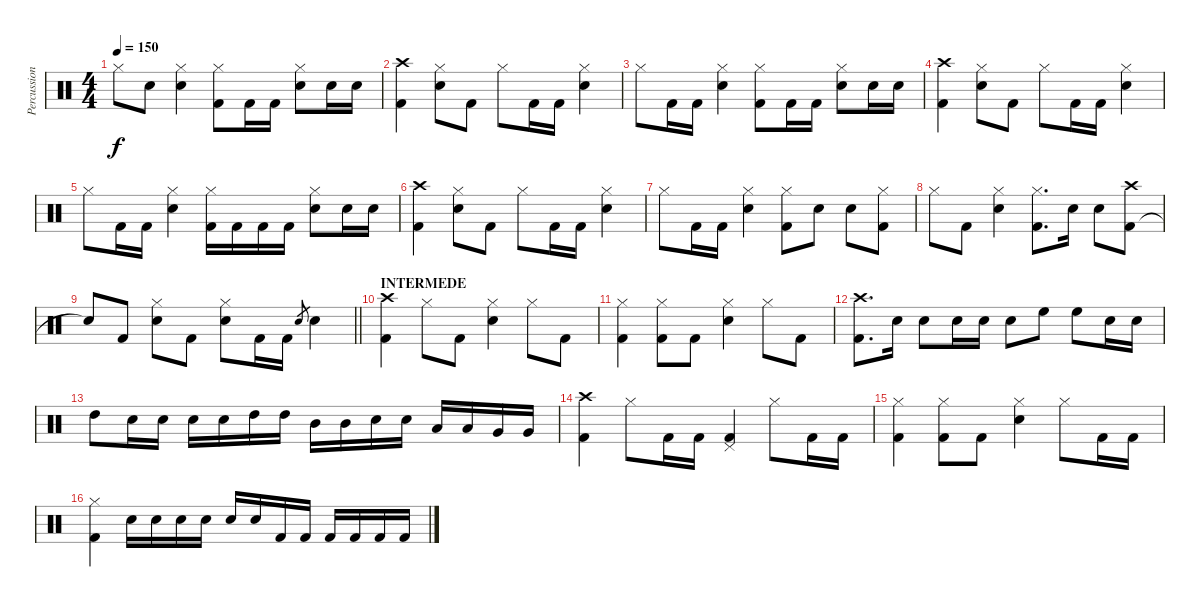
\track ("Percussion" "Percussion") {instrument percussion}
\staff {score}
\articulation defaults
\ts (4 4)
\tempo 150
\clef neutral
\ks c "Hi-Hat (closed)".8{dy f} "Electric Snare (hit)".8
("Electric Snare (hit)" "Hi-Hat (closed)").4 ("Kick (hit) 2" "Hi-Hat (closed)").8 "Kick (hit) 2".16 "Kick (hit) 2".16 ("Electric Snare (hit)" "Hi-Hat (closed)").8 "Electric Snare (hit)".16 "Electric Snare (hit)".16 |
("Kick (hit) 2" "Crash high (hit)").4 ("Electric Snare (hit)" "Hi-Hat (closed)").8 "Kick (hit) 2".8 "Hi-Hat (closed)".8 "Kick (hit) 2".16 "Kick (hit) 2".16 ("Electric Snare (hit)" "Hi-Hat (closed)").4 |
"Hi-Hat (closed)".8 "Kick (hit) 2".16 "Kick (hit) 2".16 ("Electric Snare (hit)" "Hi-Hat (closed)").4 ("Kick (hit) 2" "Hi-Hat (closed)").8 "Kick (hit) 2".16 "Kick (hit) 2".16 ("Electric Snare (hit)" "Hi-Hat (closed)").8 "Electric Snare (hit)".16 "Electric Snare (hit)".16 |
("Kick (hit) 2" "Crash high (hit)").4 ("Electric Snare (hit)" "Hi-Hat (closed)").8 "Kick (hit) 2".8 "Hi-Hat (closed)".8 "Kick (hit) 2".16 "Kick (hit) 2".16 ("Electric Snare (hit)" "Hi-Hat (closed)").4 |
"Hi-Hat (closed)".8 "Kick (hit) 2".16 "Kick (hit) 2".16 ("Electric Snare (hit)" "Hi-Hat (closed)").4 ("Kick (hit) 2" "Hi-Hat (closed)").16 "Kick (hit) 2".16 "Kick (hit) 2".16 "Kick (hit) 2".16 ("Electric Snare (hit)" "Hi-Hat (closed)").8 "Electric Snare (hit)".16 "Electric Snare (hit)".16 |
("Kick (hit) 2" "Crash high (hit)").4 ("Electric Snare (hit)" "Hi-Hat (closed)").8 "Kick (hit) 2".8 "Hi-Hat (closed)".8 "Kick (hit) 2".16 "Kick (hit) 2".16 ("Electric Snare (hit)" "Hi-Hat (closed)").4 |
"Hi-Hat (closed)".8 "Kick (hit) 2".16 "Kick (hit) 2".16 ("Electric Snare (hit)" "Hi-Hat (closed)").4 ("Kick (hit) 2" "Hi-Hat (closed)").8 "Electric Snare (hit)".8 "Electric Snare (hit)".8 ("Kick (hit) 2" "Hi-Hat (closed)").8 |
"Hi-Hat (closed)".8 "Kick (hit) 2".8 ("Electric Snare (hit)" "Hi-Hat (closed)").4 ("Kick (hit) 2" "Hi-Hat (closed)").8{d} "Electric Snare (hit)".16 "Electric Snare (hit)".8 ("Kick (hit) 2" "Crash high (hit)").8 |
\barLineRight lightlight "Snare (hit)"{t}.8 "Kick (hit) 2".8
("Electric Snare (hit)" "Hi-Hat (closed)").8 "Kick (hit) 2".8 ("Electric Snare (hit)" "Hi-Hat (closed)").8 "Kick (hit) 2".16 "Kick (hit) 2".16 "Electric Snare (hit)".8{gr} "Electric Snare (hit)".4 |
\section ("" "INTERMEDE")
("Kick (hit) 2" "Crash high (hit)").4 "Hi-Hat (closed)".8 "Kick (hit) 2".8 ("Electric Snare (hit)" "Hi-Hat (closed)").4 "Hi-Hat (closed)".8 "Kick (hit) 2".8 |
("Kick (hit) 2" "Hi-Hat (closed)").4 ("Kick (hit) 2" "Hi-Hat (closed)").8 "Kick (hit) 2".8 ("Electric Snare (hit)" "Hi-Hat (closed)").4 "Hi-Hat (closed)".8 "Kick (hit) 2".8 |
("Kick (hit) 2" "Crash high (hit)").8{d} "Electric Snare (hit)".16 "Electric Snare (hit)".8 "Electric Snare (hit)".16 "Electric Snare (hit)".16 "Electric Snare (hit)".8 "High Floor Tom (hit)".8 "High Floor Tom (hit)".8 "Electric Snare (hit)".16 "Electric Snare (hit)".16 |
"High Tom (hit)".8 "Electric Snare (hit)".16 "Electric Snare (hit)".16 "Electric Snare (hit)".16 "Electric Snare (hit)".16 "High Tom (hit)".16 "High Tom (hit)".16 "Mid Tom (hit)".16 "Mid Tom (hit)".16 "Electric Snare (hit)".16 "Electric Snare (hit)".16 "Low Tom (hit)".16 "Low Tom (hit)".16 "Very Low Tom (hit)".16 "Very Low Tom (hit)".16 |
("Kick (hit) 2" "Crash high (hit)").4 "Hi-Hat (closed)".8 "Kick (hit) 2".16 "Kick (hit) 2".16 ("Kick (hit) 2" "Pedal Hi-Hat (hit)").4 "Hi-Hat (closed)".8 "Kick (hit) 2".16 "Kick (hit) 2".16 |
("Kick (hit) 2" "Hi-Hat (closed)").4 ("Kick (hit) 2" "Hi-Hat (closed)").8 "Kick (hit) 2".8 ("Electric Snare (hit)" "Hi-Hat (closed)").4 "Hi-Hat (closed)".8 "Kick (hit) 2".16 "Kick (hit) 2".16 |
("Kick (hit) 2" "Hi-Hat (closed)").4 "Electric Snare (hit)".16 "Electric Snare (hit)".16 "Electric Snare (hit)".16 "Electric Snare (hit)".16 "Electric Snare (hit)".16 "Electric Snare (hit)".16 "Kick (hit) 2".16 "Kick (hit) 2".16 "Kick (hit) 2".16 "Kick (hit) 2".16 "Kick (hit) 2".16 "Kick (hit) 2".16
